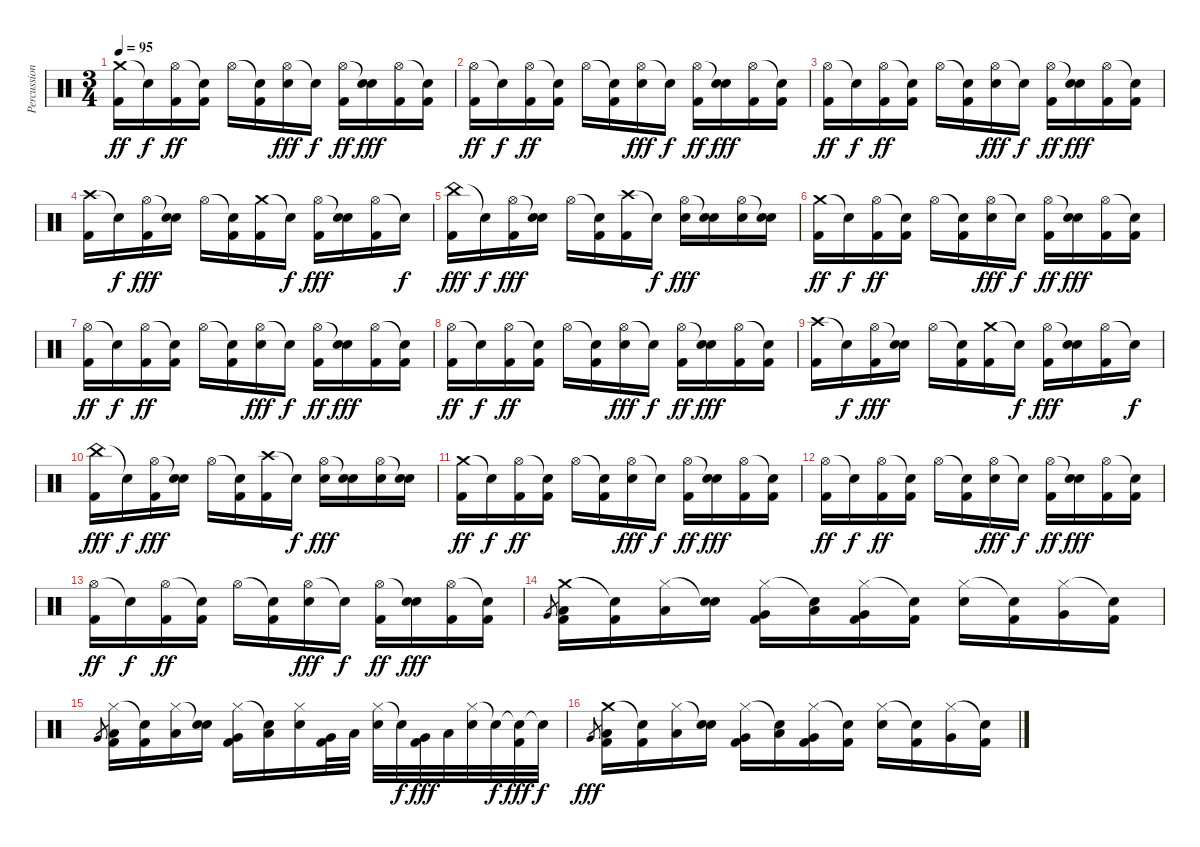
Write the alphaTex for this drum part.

\track ("Percussioni" "Percussion") {instrument percussion}
\staff {score}
\articulation defaults
\ts (3 4)
\tempo 95
\clef neutral
\ks c
("Crash medium (hit)" "Kick (hit) 2").16{dy ff} "Snare (hit)"{t}.16{dy f} ("Hi-Hat (open)" "Kick (hit) 2").16{dy ff} ("Snare (hit)"{t} "Kick (hit) 2").16 "Hi-Hat (open)".16 ("Snare (hit)"{t} "Kick (hit) 2").16 ("Hi-Hat (open)" "Electric Snare (hit)").16{dy fff} "Snare (hit)"{t}.16{dy f} ("Hi-Hat (open)" "Kick (hit) 2").16{dy ff} ("Snare (hit)"{t} "Electric Snare (hit)").16{dy fff} ("Hi-Hat (open)" "Kick (hit) 2").16 ("Snare (hit)"{t} "Kick (hit) 2").16 |
("Hi-Hat (open)" "Kick (hit) 2").16{dy ff} "Snare (hit)"{t}.16{dy f} ("Hi-Hat (open)" "Kick (hit) 2").16{dy ff} ("Snare (hit)"{t} "Kick (hit) 2").16 "Hi-Hat (open)".16 ("Snare (hit)"{t} "Kick (hit) 2").16 ("Hi-Hat (open)" "Electric Snare (hit)").16{dy fff} "Snare (hit)"{t}.16{dy f} ("Hi-Hat (open)" "Kick (hit) 2").16{dy ff} ("Snare (hit)"{t} "Electric Snare (hit)").16{dy fff} ("Hi-Hat (open)" "Kick (hit) 2").16 ("Snare (hit)"{t} "Kick (hit) 2").16 |
("Hi-Hat (open)" "Kick (hit) 2").16{dy ff} "Snare (hit)"{t}.16{dy f} ("Hi-Hat (open)" "Kick (hit) 2").16{dy ff} ("Snare (hit)"{t} "Kick (hit) 2").16 "Hi-Hat (open)".16 ("Snare (hit)"{t} "Kick (hit) 2").16 ("Hi-Hat (open)" "Electric Snare (hit)").16{dy fff} "Snare (hit)"{t}.16{dy f} ("Hi-Hat (open)" "Kick (hit) 2").16{dy ff} ("Snare (hit)"{t} "Electric Snare (hit)").16{dy fff} ("Hi-Hat (open)" "Kick (hit) 2").16 ("Snare (hit)"{t} "Kick (hit) 2").16 |
("Crash high (hit)" "Kick (hit) 2").16 "Snare (hit)"{t}.16{dy f} ("Hi-Hat (open)" "Kick (hit) 2").16{dy fff} ("Snare (hit)"{t} "Electric Snare (hit)").16 "Hi-Hat (open)".16 ("Snare (hit)"{t} "Kick (hit) 2").16 ("Crash medium (hit)" "Kick (hit) 2").16 "Snare (hit)"{t}.16{dy f} ("Hi-Hat (open)" "Kick (hit) 2").16{dy fff} ("Snare (hit)"{t} "Electric Snare (hit)").16 ("Hi-Hat (open)" "Kick (hit) 2").16 "Snare (hit)"{t}.16{dy f} |
("China (hit)" "Kick (hit) 2").16{dy fff} "Snare (hit)"{t}.16{dy f} ("Hi-Hat (open)" "Kick (hit) 2").16{dy fff} ("Snare (hit)"{t} "Electric Snare (hit)").16 "Hi-Hat (open)".16 ("Snare (hit)"{t} "Kick (hit) 2").16 ("Crash high (hit)" "Kick (hit) 2").16 "Snare (hit)"{t}.16{dy f} ("Hi-Hat (open)" "Electric Snare (hit)").16{dy fff} ("Snare (hit)"{t} "Electric Snare (hit)").16 ("Hi-Hat (open)" "Electric Snare (hit)").16 ("Snare (hit)"{t} "Electric Snare (hit)").16 |
("Crash medium (hit)" "Kick (hit) 2").16{dy ff} "Snare (hit)"{t}.16{dy f} ("Hi-Hat (open)" "Kick (hit) 2").16{dy ff} ("Snare (hit)"{t} "Kick (hit) 2").16 "Hi-Hat (open)".16 ("Snare (hit)"{t} "Kick (hit) 2").16 ("Hi-Hat (open)" "Electric Snare (hit)").16{dy fff} "Snare (hit)"{t}.16{dy f} ("Hi-Hat (open)" "Kick (hit) 2").16{dy ff} ("Snare (hit)"{t} "Electric Snare (hit)").16{dy fff} ("Hi-Hat (open)" "Kick (hit) 2").16 ("Snare (hit)"{t} "Kick (hit) 2").16 |
("Hi-Hat (open)" "Kick (hit) 2").16{dy ff} "Snare (hit)"{t}.16{dy f} ("Hi-Hat (open)" "Kick (hit) 2").16{dy ff} ("Snare (hit)"{t} "Kick (hit) 2").16 "Hi-Hat (open)".16 ("Snare (hit)"{t} "Kick (hit) 2").16 ("Hi-Hat (open)" "Electric Snare (hit)").16{dy fff} "Snare (hit)"{t}.16{dy f} ("Hi-Hat (open)" "Kick (hit) 2").16{dy ff} ("Snare (hit)"{t} "Electric Snare (hit)").16{dy fff} ("Hi-Hat (open)" "Kick (hit) 2").16 ("Snare (hit)"{t} "Kick (hit) 2").16 |
("Hi-Hat (open)" "Kick (hit) 2").16{dy ff} "Snare (hit)"{t}.16{dy f} ("Hi-Hat (open)" "Kick (hit) 2").16{dy ff} ("Snare (hit)"{t} "Kick (hit) 2").16 "Hi-Hat (open)".16 ("Snare (hit)"{t} "Kick (hit) 2").16 ("Hi-Hat (open)" "Electric Snare (hit)").16{dy fff} "Snare (hit)"{t}.16{dy f} ("Hi-Hat (open)" "Kick (hit) 2").16{dy ff} ("Snare (hit)"{t} "Electric Snare (hit)").16{dy fff} ("Hi-Hat (open)" "Kick (hit) 2").16 ("Snare (hit)"{t} "Kick (hit) 2").16 |
("Crash high (hit)" "Kick (hit) 2").16 "Snare (hit)"{t}.16{dy f} ("Hi-Hat (open)" "Kick (hit) 2").16{dy fff} ("Snare (hit)"{t} "Electric Snare (hit)").16 "Hi-Hat (open)".16 ("Snare (hit)"{t} "Kick (hit) 2").16 ("Crash medium (hit)" "Kick (hit) 2").16 "Snare (hit)"{t}.16{dy f} ("Hi-Hat (open)" "Kick (hit) 2").16{dy fff} ("Snare (hit)"{t} "Electric Snare (hit)").16 ("Hi-Hat (open)" "Kick (hit) 2").16 "Snare (hit)"{t}.16{dy f} |
("China (hit)" "Kick (hit) 2").16{dy fff} "Snare (hit)"{t}.16{dy f} ("Hi-Hat (open)" "Kick (hit) 2").16{dy fff} ("Snare (hit)"{t} "Electric Snare (hit)").16 "Hi-Hat (open)".16 ("Snare (hit)"{t} "Kick (hit) 2").16 ("Crash high (hit)" "Kick (hit) 2").16 "Snare (hit)"{t}.16{dy f} ("Hi-Hat (open)" "Electric Snare (hit)").16{dy fff} ("Snare (hit)"{t} "Electric Snare (hit)").16 ("Hi-Hat (open)" "Electric Snare (hit)").16 ("Snare (hit)"{t} "Electric Snare (hit)").16 |
("Crash medium (hit)" "Kick (hit) 2").16{dy ff} "Snare (hit)"{t}.16{dy f} ("Hi-Hat (open)" "Kick (hit) 2").16{dy ff} ("Snare (hit)"{t} "Kick (hit) 2").16 "Hi-Hat (open)".16 ("Snare (hit)"{t} "Kick (hit) 2").16 ("Hi-Hat (open)" "Electric Snare (hit)").16{dy fff} "Snare (hit)"{t}.16{dy f} ("Hi-Hat (open)" "Kick (hit) 2").16{dy ff} ("Snare (hit)"{t} "Electric Snare (hit)").16{dy fff} ("Hi-Hat (open)" "Kick (hit) 2").16 ("Snare (hit)"{t} "Kick (hit) 2").16 |
("Hi-Hat (open)" "Kick (hit) 2").16{dy ff} "Snare (hit)"{t}.16{dy f} ("Hi-Hat (open)" "Kick (hit) 2").16{dy ff} ("Snare (hit)"{t} "Kick (hit) 2").16 "Hi-Hat (open)".16 ("Snare (hit)"{t} "Kick (hit) 2").16 ("Hi-Hat (open)" "Electric Snare (hit)").16{dy fff} "Snare (hit)"{t}.16{dy f} ("Hi-Hat (open)" "Kick (hit) 2").16{dy ff} ("Snare (hit)"{t} "Electric Snare (hit)").16{dy fff} ("Hi-Hat (open)" "Kick (hit) 2").16 ("Snare (hit)"{t} "Kick (hit) 2").16 |
("Hi-Hat (open)" "Kick (hit) 2").16{dy ff} "Snare (hit)"{t}.16{dy f} ("Hi-Hat (open)" "Kick (hit) 2").16{dy ff} ("Snare (hit)"{t} "Kick (hit) 2").16 "Hi-Hat (open)".16 ("Snare (hit)"{t} "Kick (hit) 2").16 ("Hi-Hat (open)" "Electric Snare (hit)").16{dy fff} "Snare (hit)"{t}.16{dy f} ("Hi-Hat (open)" "Kick (hit) 2").16{dy ff} ("Snare (hit)"{t} "Electric Snare (hit)").16{dy fff} ("Hi-Hat (open)" "Kick (hit) 2").16 ("Snare (hit)"{t} "Kick (hit) 2").16 |
"Very Low Tom (hit)".8{gr} ("Crash medium (hit)" "Low Tom (hit)" "Kick (hit) 2").16 ("Snare (hit)"{t} "Kick (hit) 2").16 ("Hi-Hat (closed)" "Low Tom (hit)").16 ("Snare (hit)"{t} "Electric Snare (hit)").16 ("Hi-Hat (closed)" "Very Low Tom (hit)" "Kick (hit) 2").16 ("Snare (hit)"{t} "Low Tom (hit)").16 ("Hi-Hat (closed)" "Very Low Tom (hit)" "Kick (hit) 2").16 ("Snare (hit)"{t} "Kick (hit) 2").16 ("Hi-Hat (closed)" "Electric Snare (hit)").16 ("Snare (hit)"{t} "Kick (hit) 2").16 ("Hi-Hat (closed)" "Very Low Tom (hit)").16 ("Snare (hit)"{t} "Kick (hit) 2").16 |
"Very Low Tom (hit)".8{gr} ("Hi-Hat (closed)" "Low Tom (hit)" "Kick (hit) 2").16 ("Snare (hit)"{t} "Kick (hit) 2").16 ("Hi-Hat (closed)" "Low Tom (hit)").16 ("Snare (hit)"{t} "Electric Snare (hit)").16 ("Hi-Hat (closed)" "Very Low Tom (hit)" "Kick (hit) 2").16 ("Snare (hit)"{t} "Low Tom (hit)").16 ("Hi-Hat (closed)" "Electric Snare (hit)").16 ("Very Low Tom (hit)" "Kick (hit) 2").32 "Low Tom (hit)".32 ("Hi-Hat (closed)" "Electric Snare (hit)").32 "Snare (hit)"{t}.32{dy f} ("Very Low Tom (hit)" "Kick (hit) 2").32{dy fff} "Low Tom (hit)".32 ("Hi-Hat (closed)" "Electric Snare (hit)").32 "Snare (hit)"{t}.32{dy f} ("Snare (hit)"{t} "Kick (hit) 2").32{dy fff} "Snare (hit)"{t}.32{dy f} |
"Very Low Tom (hit)".8{gr dy fff} ("Crash medium (hit)" "Low Tom (hit)" "Kick (hit) 2").16 ("Snare (hit)"{t} "Kick (hit) 2").16 ("Hi-Hat (closed)" "Low Tom (hit)").16 ("Snare (hit)"{t} "Electric Snare (hit)").16 ("Hi-Hat (closed)" "Very Low Tom (hit)" "Kick (hit) 2").16 ("Snare (hit)"{t} "Low Tom (hit)").16 ("Hi-Hat (closed)" "Very Low Tom (hit)" "Kick (hit) 2").16 ("Snare (hit)"{t} "Kick (hit) 2").16 ("Hi-Hat (closed)" "Electric Snare (hit)").16 ("Snare (hit)"{t} "Kick (hit) 2").16 ("Hi-Hat (closed)" "Very Low Tom (hit)").16 ("Snare (hit)"{t} "Kick (hit) 2").16
